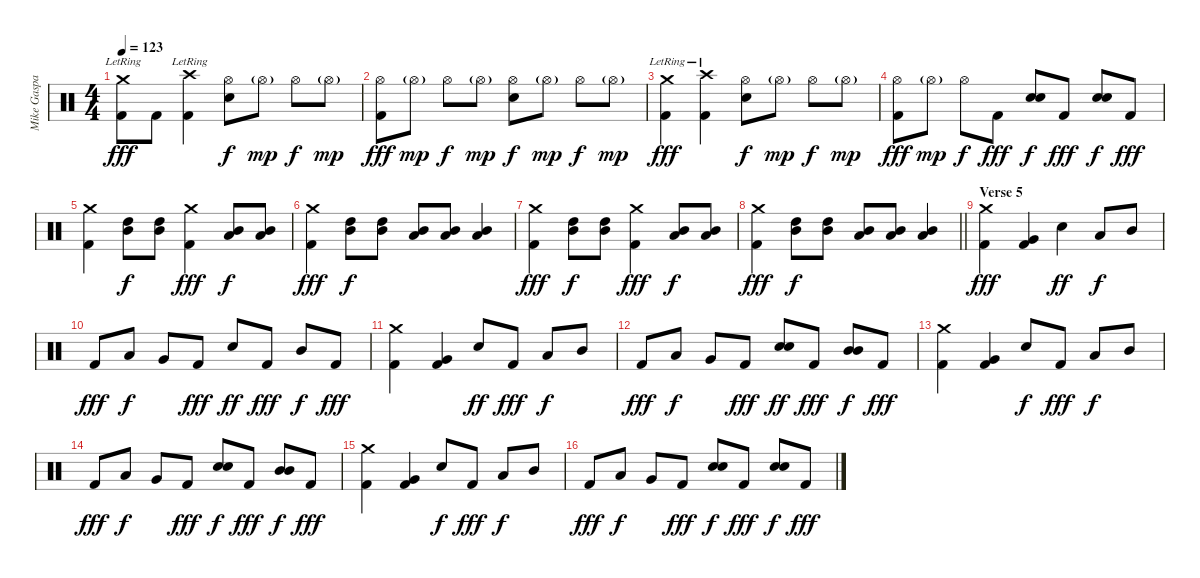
\track ("Mike Gaspar (Drums)" "Mike Gaspa") {instrument percussion}
\staff {score}
\articulation defaults
\ts (4 4)
\tempo 123
\clef neutral
\ks c
("Crash medium (hit)"{lr} "Kick (hit) 2").8{dy fff} "Kick (hit) 2".8 ("Crash high (hit)"{lr} "Kick (hit) 2").4 ("Hi-Hat (open)" "Snare (hit) 2").8{dy f} "Hi-Hat (open)"{g}.8{dy mp} "Hi-Hat (open)".8{dy f} "Hi-Hat (open)"{g}.8{dy mp} |
("Hi-Hat (open)" "Kick (hit) 2").8{dy fff} "Hi-Hat (open)"{g}.8{dy mp} "Hi-Hat (open)".8{dy f} "Hi-Hat (open)"{g}.8{dy mp} ("Hi-Hat (open)" "Snare (hit) 2").8{dy f} "Hi-Hat (open)"{g}.8{dy mp} "Hi-Hat (open)".8{dy f} "Hi-Hat (open)"{g}.8{dy mp} |
("Crash medium (hit)"{lr} "Kick (hit) 2").4{dy fff} ("Crash high (hit)"{lr} "Kick (hit) 2").4 ("Hi-Hat (open)" "Snare (hit) 2").8{dy f} "Hi-Hat (open)"{g}.8{dy mp} "Hi-Hat (open)".8{dy f} "Hi-Hat (open)"{g}.8{dy mp} |
("Hi-Hat (open)" "Kick (hit) 2").8{dy fff} "Hi-Hat (open)"{g}.8{dy mp} "Hi-Hat (open)".8{dy f} "Kick (hit) 2".8{dy fff} ("Snare (hit) 2" "Snare (hit) 2").8{bd 30 dy f} "Kick (hit) 2".8{dy fff} ("Snare (hit) 2" "Snare (hit) 2").8{bd 30 dy f} "Kick (hit) 2".8{dy fff} |
("Crash medium (hit)" "Kick (hit) 2").4 ("High Tom (hit)" "Mid Tom (hit)").8{dy f} ("High Tom (hit)" "Mid Tom (hit)").8 ("Crash medium (hit)" "Kick (hit) 2").4{dy fff} ("Mid Tom (hit)" "Low Tom (hit)").8{dy f} ("Mid Tom (hit)" "Low Tom (hit)").8 |
("Crash medium (hit)" "Kick (hit) 2").4{dy fff} ("High Tom (hit)" "Mid Tom (hit)").8{dy f} ("High Tom (hit)" "Mid Tom (hit)").8 ("Mid Tom (hit)" "Low Tom (hit)").8 ("Mid Tom (hit)" "Low Tom (hit)").8 ("Mid Tom (hit)" "Low Tom (hit)").4 |
("Crash medium (hit)" "Kick (hit) 2").4{dy fff} ("High Tom (hit)" "Mid Tom (hit)").8{dy f} ("High Tom (hit)" "Mid Tom (hit)").8 ("Crash medium (hit)" "Kick (hit) 2").4{dy fff} ("Mid Tom (hit)" "Low Tom (hit)").8{dy f} ("Mid Tom (hit)" "Low Tom (hit)").8 |
\barLineRight lightlight
("Crash medium (hit)" "Kick (hit) 2").4{dy fff} ("High Tom (hit)" "Mid Tom (hit)").8{dy f} ("High Tom (hit)" "Mid Tom (hit)").8 ("Mid Tom (hit)" "Low Tom (hit)").8 ("Mid Tom (hit)" "Low Tom (hit)").8 ("Mid Tom (hit)" "Low Tom (hit)").4 |
\section ("" "Verse 5")
("Crash medium (hit)" "Kick (hit) 2").4{dy fff} ("Very Low Tom (hit)" "Kick (hit) 2").4 "Snare (hit) 2".4{dy ff} "Low Tom (hit)".8{dy f} "Mid Tom (hit)".8 |
"Kick (hit) 2".8{dy fff} "Low Tom (hit)".8{dy f} "Very Low Tom (hit)".8 "Kick (hit) 2".8{dy fff} "Snare (hit) 2".8{dy ff} "Kick (hit) 2".8{dy fff} "Mid Tom (hit)".8{dy f} "Kick (hit) 2".8{dy fff} |
("Crash medium (hit)" "Kick (hit) 2").4 ("Very Low Tom (hit)" "Kick (hit) 2").4 "Snare (hit) 2".8{dy ff} "Kick (hit) 2".8{dy fff} "Low Tom (hit)".8{dy f} "Mid Tom (hit)".8 |
"Kick (hit) 2".8{dy fff} "Low Tom (hit)".8{dy f} "Very Low Tom (hit)".8 "Kick (hit) 2".8{dy fff} ("Snare (hit) 2" "Snare (hit) 2").8{bd 60 dy ff} "Kick (hit) 2".8{dy fff} ("Mid Tom (hit)" "Mid Tom (hit)").8{bd 60 dy f} "Kick (hit) 2".8{dy fff} |
("Crash medium (hit)" "Kick (hit) 2").4 ("Very Low Tom (hit)" "Kick (hit) 2").4 "Snare (hit) 2".8{dy f} "Kick (hit) 2".8{dy fff} "Low Tom (hit)".8{dy f} "Mid Tom (hit)".8 |
"Kick (hit) 2".8{dy fff} "Low Tom (hit)".8{dy f} "Very Low Tom (hit)".8 "Kick (hit) 2".8{dy fff} ("Snare (hit) 2" "Snare (hit) 2").8{bd 60 dy f} "Kick (hit) 2".8{dy fff} ("Mid Tom (hit)" "Mid Tom (hit)").8{bd 60 dy f} "Kick (hit) 2".8{dy fff} |
("Crash medium (hit)" "Kick (hit) 2").4 ("Very Low Tom (hit)" "Kick (hit) 2").4 "Snare (hit) 2".8{dy f} "Kick (hit) 2".8{dy fff} "Low Tom (hit)".8{dy f} "Mid Tom (hit)".8 |
"Kick (hit) 2".8{dy fff} "Low Tom (hit)".8{dy f} "Very Low Tom (hit)".8 "Kick (hit) 2".8{dy fff} ("Snare (hit) 2" "Snare (hit) 2").8{bd 30 dy f} "Kick (hit) 2".8{dy fff} ("Snare (hit) 2" "Snare (hit) 2").8{bd 60 dy f} "Kick (hit) 2".8{dy fff}
